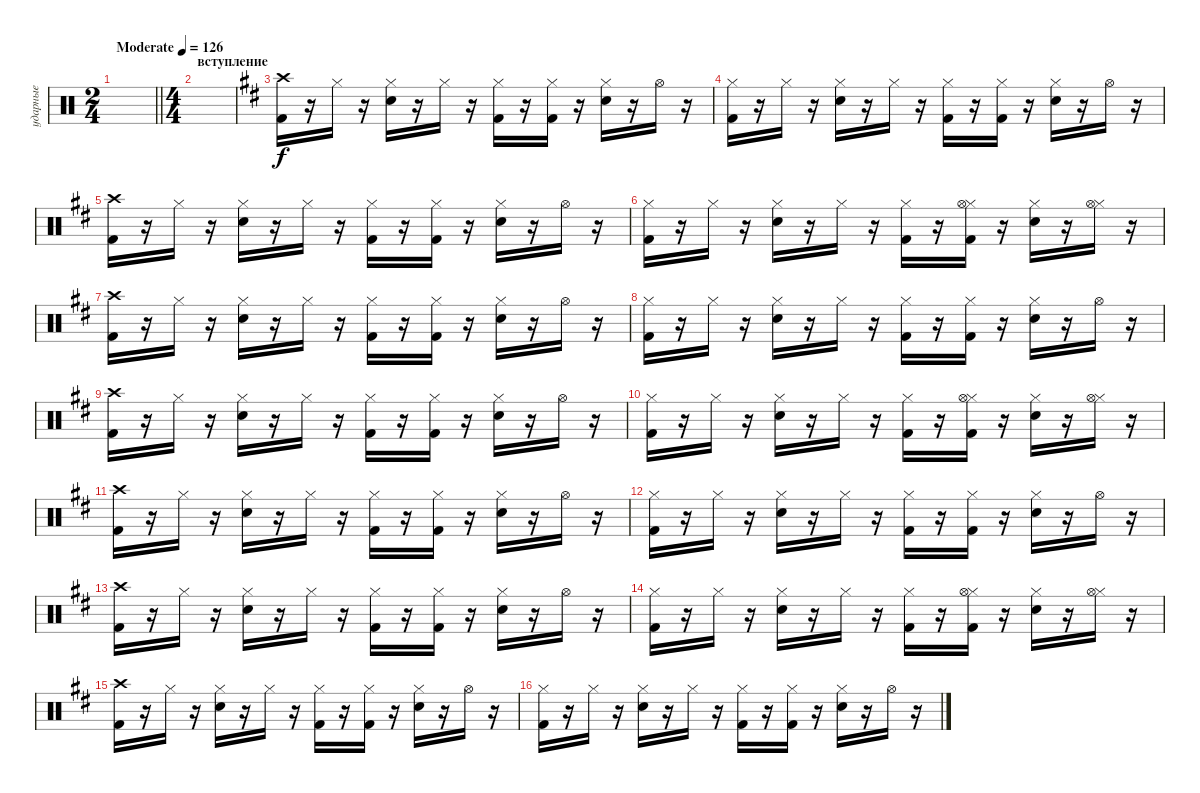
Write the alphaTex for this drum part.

\track ("ударные" "ударные") {instrument percussion}
\staff {score}
\articulation defaults
\ts (2 4)
\tempo (126 "Moderate")
\clef neutral
\barLineRight lightlight
\ks c
|
\ts (4 4)
\section ("" "вступление")
|
\ks d
("Crash high (hit)" "Kick (hit) 2").16 r.16 "Hi-Hat (closed)".16 r.16 ("Hi-Hat (closed)" "Electric Snare (hit)").16 r.16 "Hi-Hat (closed)".16 r.16 ("Hi-Hat (closed)" "Kick (hit) 2").16 r.16 ("Hi-Hat (closed)" "Kick (hit) 2").16 r.16 ("Hi-Hat (closed)" "Electric Snare (hit)").16 r.16 "Hi-Hat (open)".16 r.16 |
("Hi-Hat (closed)" "Kick (hit) 2").16 r.16 "Hi-Hat (closed)".16 r.16 ("Hi-Hat (closed)" "Electric Snare (hit)").16 r.16 "Hi-Hat (closed)".16 r.16 ("Hi-Hat (closed)" "Kick (hit) 2").16 r.16 ("Hi-Hat (closed)" "Kick (hit) 2").16 r.16 ("Hi-Hat (closed)" "Electric Snare (hit)").16 r.16 "Hi-Hat (open)".16 r.16 |
("Crash high (hit)" "Kick (hit) 2").16 r.16 "Hi-Hat (closed)".16 r.16 ("Hi-Hat (closed)" "Electric Snare (hit)").16 r.16 "Hi-Hat (closed)".16 r.16 ("Hi-Hat (closed)" "Kick (hit) 2").16 r.16 ("Hi-Hat (closed)" "Kick (hit) 2").16 r.16 ("Hi-Hat (closed)" "Electric Snare (hit)").16 r.16 "Hi-Hat (open)".16 r.16 |
("Hi-Hat (closed)" "Kick (hit) 2").16 r.16 "Hi-Hat (closed)".16 r.16 ("Hi-Hat (closed)" "Electric Snare (hit)").16 r.16 "Hi-Hat (closed)".16 r.16 ("Hi-Hat (closed)" "Kick (hit) 2").16 r.16 ("Hi-Hat (closed)" "Hi-Hat (open)" "Kick (hit) 2").16 r.16 ("Hi-Hat (closed)" "Electric Snare (hit)").16 r.16 ("Hi-Hat (closed)" "Hi-Hat (open)").16 r.16 |
("Crash high (hit)" "Kick (hit) 2").16 r.16 "Hi-Hat (closed)".16 r.16 ("Hi-Hat (closed)" "Electric Snare (hit)").16 r.16 "Hi-Hat (closed)".16 r.16 ("Hi-Hat (closed)" "Kick (hit) 2").16 r.16 ("Hi-Hat (closed)" "Kick (hit) 2").16 r.16 ("Hi-Hat (closed)" "Electric Snare (hit)").16 r.16 "Hi-Hat (open)".16 r.16 |
("Hi-Hat (closed)" "Kick (hit) 2").16 r.16 "Hi-Hat (closed)".16 r.16 ("Hi-Hat (closed)" "Electric Snare (hit)").16 r.16 "Hi-Hat (closed)".16 r.16 ("Hi-Hat (closed)" "Kick (hit) 2").16 r.16 ("Hi-Hat (closed)" "Kick (hit) 2").16 r.16 ("Hi-Hat (closed)" "Electric Snare (hit)").16 r.16 "Hi-Hat (open)".16 r.16 |
("Crash high (hit)" "Kick (hit) 2").16 r.16 "Hi-Hat (closed)".16 r.16 ("Hi-Hat (closed)" "Electric Snare (hit)").16 r.16 "Hi-Hat (closed)".16 r.16 ("Hi-Hat (closed)" "Kick (hit) 2").16 r.16 ("Hi-Hat (closed)" "Kick (hit) 2").16 r.16 ("Hi-Hat (closed)" "Electric Snare (hit)").16 r.16 "Hi-Hat (open)".16 r.16 |
("Hi-Hat (closed)" "Kick (hit) 2").16 r.16 "Hi-Hat (closed)".16 r.16 ("Hi-Hat (closed)" "Electric Snare (hit)").16 r.16 "Hi-Hat (closed)".16 r.16 ("Hi-Hat (closed)" "Kick (hit) 2").16 r.16 ("Hi-Hat (closed)" "Hi-Hat (open)" "Kick (hit) 2").16 r.16 ("Hi-Hat (closed)" "Electric Snare (hit)").16 r.16 ("Hi-Hat (closed)" "Hi-Hat (open)").16 r.16 |
("Crash high (hit)" "Kick (hit) 2").16 r.16 "Hi-Hat (closed)".16 r.16 ("Hi-Hat (closed)" "Electric Snare (hit)").16 r.16 "Hi-Hat (closed)".16 r.16 ("Hi-Hat (closed)" "Kick (hit) 2").16 r.16 ("Hi-Hat (closed)" "Kick (hit) 2").16 r.16 ("Hi-Hat (closed)" "Electric Snare (hit)").16 r.16 "Hi-Hat (open)".16 r.16 |
("Hi-Hat (closed)" "Kick (hit) 2").16 r.16 "Hi-Hat (closed)".16 r.16 ("Hi-Hat (closed)" "Electric Snare (hit)").16 r.16 "Hi-Hat (closed)".16 r.16 ("Hi-Hat (closed)" "Kick (hit) 2").16 r.16 ("Hi-Hat (closed)" "Kick (hit) 2").16 r.16 ("Hi-Hat (closed)" "Electric Snare (hit)").16 r.16 "Hi-Hat (open)".16 r.16 |
("Crash high (hit)" "Kick (hit) 2").16 r.16 "Hi-Hat (closed)".16 r.16 ("Hi-Hat (closed)" "Electric Snare (hit)").16 r.16 "Hi-Hat (closed)".16 r.16 ("Hi-Hat (closed)" "Kick (hit) 2").16 r.16 ("Hi-Hat (closed)" "Kick (hit) 2").16 r.16 ("Hi-Hat (closed)" "Electric Snare (hit)").16 r.16 "Hi-Hat (open)".16 r.16 |
("Hi-Hat (closed)" "Kick (hit) 2").16 r.16 "Hi-Hat (closed)".16 r.16 ("Hi-Hat (closed)" "Electric Snare (hit)").16 r.16 "Hi-Hat (closed)".16 r.16 ("Hi-Hat (closed)" "Kick (hit) 2").16 r.16 ("Hi-Hat (closed)" "Hi-Hat (open)" "Kick (hit) 2").16 r.16 ("Hi-Hat (closed)" "Electric Snare (hit)").16 r.16 ("Hi-Hat (closed)" "Hi-Hat (open)").16 r.16 |
("Crash high (hit)" "Kick (hit) 2").16 r.16 "Hi-Hat (closed)".16 r.16 ("Hi-Hat (closed)" "Electric Snare (hit)").16 r.16 "Hi-Hat (closed)".16 r.16 ("Hi-Hat (closed)" "Kick (hit) 2").16 r.16 ("Hi-Hat (closed)" "Kick (hit) 2").16 r.16 ("Hi-Hat (closed)" "Electric Snare (hit)").16 r.16 "Hi-Hat (open)".16 r.16 |
("Hi-Hat (closed)" "Kick (hit) 2").16 r.16 "Hi-Hat (closed)".16 r.16 ("Hi-Hat (closed)" "Electric Snare (hit)").16 r.16 "Hi-Hat (closed)".16 r.16 ("Hi-Hat (closed)" "Kick (hit) 2").16 r.16 ("Hi-Hat (closed)" "Kick (hit) 2").16 r.16 ("Hi-Hat (closed)" "Electric Snare (hit)").16 r.16 "Hi-Hat (open)".16 r.16
